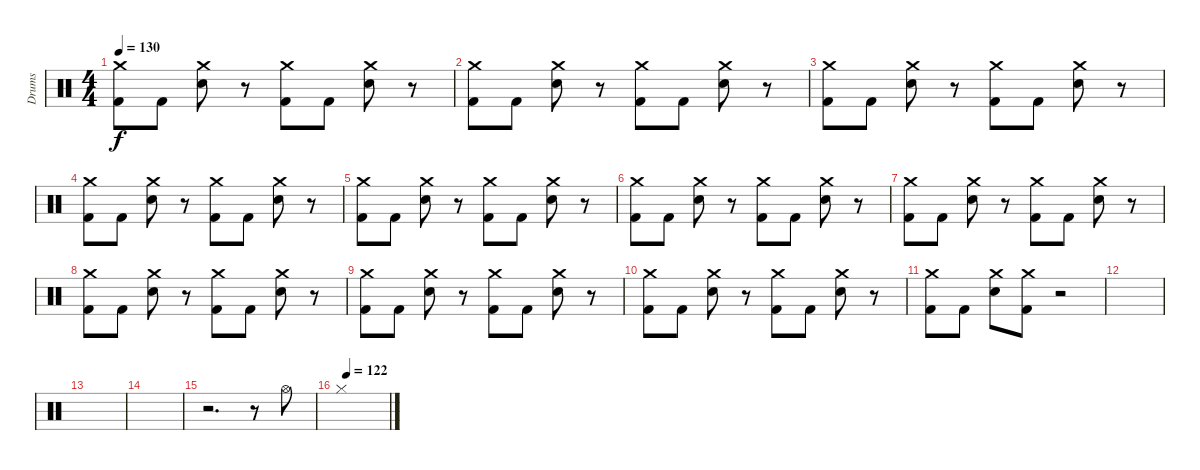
\track ("Drums" "Drums") {instrument percussion}
\staff {score}
\articulation defaults
\ts (4 4)
\tempo 130
\clef neutral
\ks c
("Crash medium (hit)" "Kick (hit) 2").8{dy f} "Kick (hit) 2".8 ("Crash medium (hit)" "Snare (hit) 2").8 r.8 ("Crash medium (hit)" "Kick (hit) 2").8 "Kick (hit) 2".8 ("Crash medium (hit)" "Snare (hit) 2").8 r.8 |
("Crash medium (hit)" "Kick (hit) 2").8 "Kick (hit) 2".8 ("Crash medium (hit)" "Snare (hit) 2").8 r.8 ("Crash medium (hit)" "Kick (hit) 2").8 "Kick (hit) 2".8 ("Crash medium (hit)" "Snare (hit) 2").8 r.8 |
("Crash medium (hit)" "Kick (hit) 2").8 "Kick (hit) 2".8 ("Crash medium (hit)" "Snare (hit) 2").8 r.8 ("Crash medium (hit)" "Kick (hit) 2").8 "Kick (hit) 2".8 ("Crash medium (hit)" "Snare (hit) 2").8 r.8 |
("Crash medium (hit)" "Kick (hit) 2").8 "Kick (hit) 2".8 ("Crash medium (hit)" "Snare (hit) 2").8 r.8 ("Crash medium (hit)" "Kick (hit) 2").8 "Kick (hit) 2".8 ("Crash medium (hit)" "Snare (hit) 2").8 r.8 |
("Crash medium (hit)" "Kick (hit) 2").8 "Kick (hit) 2".8 ("Crash medium (hit)" "Snare (hit) 2").8 r.8 ("Crash medium (hit)" "Kick (hit) 2").8 "Kick (hit) 2".8 ("Crash medium (hit)" "Snare (hit) 2").8 r.8 |
("Crash medium (hit)" "Kick (hit) 2").8 "Kick (hit) 2".8 ("Crash medium (hit)" "Snare (hit) 2").8 r.8 ("Crash medium (hit)" "Kick (hit) 2").8 "Kick (hit) 2".8 ("Crash medium (hit)" "Snare (hit) 2").8 r.8 |
("Crash medium (hit)" "Kick (hit) 2").8 "Kick (hit) 2".8 ("Crash medium (hit)" "Snare (hit) 2").8 r.8 ("Crash medium (hit)" "Kick (hit) 2").8 "Kick (hit) 2".8 ("Crash medium (hit)" "Snare (hit) 2").8 r.8 |
("Crash medium (hit)" "Kick (hit) 2").8 "Kick (hit) 2".8 ("Crash medium (hit)" "Snare (hit) 2").8 r.8 ("Crash medium (hit)" "Kick (hit) 2").8 "Kick (hit) 2".8 ("Crash medium (hit)" "Snare (hit) 2").8 r.8 |
("Crash medium (hit)" "Kick (hit) 2").8 "Kick (hit) 2".8 ("Crash medium (hit)" "Snare (hit) 2").8 r.8 ("Crash medium (hit)" "Kick (hit) 2").8 "Kick (hit) 2".8 ("Crash medium (hit)" "Snare (hit) 2").8 r.8 |
("Crash medium (hit)" "Kick (hit) 2").8 "Kick (hit) 2".8 ("Crash medium (hit)" "Snare (hit) 2").8 r.8 ("Crash medium (hit)" "Kick (hit) 2").8 "Kick (hit) 2".8 ("Crash medium (hit)" "Snare (hit) 2").8 r.8 |
("Crash medium (hit)" "Kick (hit) 2").8 "Kick (hit) 2".8 ("Crash medium (hit)" "Snare (hit) 2").8 ("Crash medium (hit)" "Kick (hit) 2").8 r.2 |
|
|
|
r.2{d} r.8 "Hi-Hat (open)".8 |
\tempo (122 0.125)
"Hi-Hat (closed)".1
